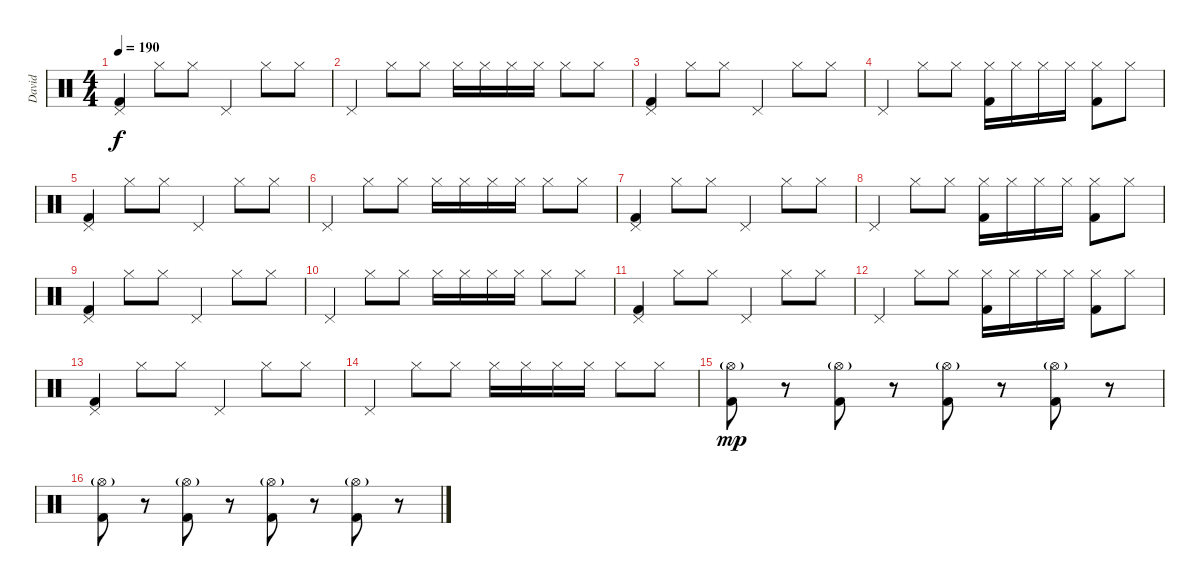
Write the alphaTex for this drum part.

\track ("David" "David") {instrument percussion}
\staff {score}
\articulation defaults
\ts (4 4)
\tempo 190
\clef neutral
\ks c
("Pedal Hi-Hat (hit)" "Kick (hit) 2").4{dy f} "Hi-Hat (closed)".8 "Hi-Hat (closed)".8 "Pedal Hi-Hat (hit)".4 "Hi-Hat (closed)".8 "Hi-Hat (closed)".8 |
"Pedal Hi-Hat (hit)".4 "Hi-Hat (closed)".8 "Hi-Hat (closed)".8 "Hi-Hat (closed)".16 "Hi-Hat (closed)".16 "Hi-Hat (closed)".16 "Hi-Hat (closed)".16 "Hi-Hat (closed)".8 "Hi-Hat (closed)".8 |
("Pedal Hi-Hat (hit)" "Kick (hit) 2").4 "Hi-Hat (closed)".8 "Hi-Hat (closed)".8 "Pedal Hi-Hat (hit)".4 "Hi-Hat (closed)".8 "Hi-Hat (closed)".8 |
"Pedal Hi-Hat (hit)".4 "Hi-Hat (closed)".8 "Hi-Hat (closed)".8 ("Hi-Hat (closed)" "Kick (hit) 2").16 "Hi-Hat (closed)".16 "Hi-Hat (closed)".16 "Hi-Hat (closed)".16 ("Hi-Hat (closed)" "Kick (hit) 2").8 "Hi-Hat (closed)".8 |
("Pedal Hi-Hat (hit)" "Kick (hit) 2").4 "Hi-Hat (closed)".8 "Hi-Hat (closed)".8 "Pedal Hi-Hat (hit)".4 "Hi-Hat (closed)".8 "Hi-Hat (closed)".8 |
"Pedal Hi-Hat (hit)".4 "Hi-Hat (closed)".8 "Hi-Hat (closed)".8 "Hi-Hat (closed)".16 "Hi-Hat (closed)".16 "Hi-Hat (closed)".16 "Hi-Hat (closed)".16 "Hi-Hat (closed)".8 "Hi-Hat (closed)".8 |
("Pedal Hi-Hat (hit)" "Kick (hit) 2").4 "Hi-Hat (closed)".8 "Hi-Hat (closed)".8 "Pedal Hi-Hat (hit)".4 "Hi-Hat (closed)".8 "Hi-Hat (closed)".8 |
"Pedal Hi-Hat (hit)".4 "Hi-Hat (closed)".8 "Hi-Hat (closed)".8 ("Hi-Hat (closed)" "Kick (hit) 2").16 "Hi-Hat (closed)".16 "Hi-Hat (closed)".16 "Hi-Hat (closed)".16 ("Hi-Hat (closed)" "Kick (hit) 2").8 "Hi-Hat (closed)".8 |
("Pedal Hi-Hat (hit)" "Kick (hit) 2").4 "Hi-Hat (closed)".8 "Hi-Hat (closed)".8 "Pedal Hi-Hat (hit)".4 "Hi-Hat (closed)".8 "Hi-Hat (closed)".8 |
"Pedal Hi-Hat (hit)".4 "Hi-Hat (closed)".8 "Hi-Hat (closed)".8 "Hi-Hat (closed)".16 "Hi-Hat (closed)".16 "Hi-Hat (closed)".16 "Hi-Hat (closed)".16 "Hi-Hat (closed)".8 "Hi-Hat (closed)".8 |
("Pedal Hi-Hat (hit)" "Kick (hit) 2").4 "Hi-Hat (closed)".8 "Hi-Hat (closed)".8 "Pedal Hi-Hat (hit)".4 "Hi-Hat (closed)".8 "Hi-Hat (closed)".8 |
"Pedal Hi-Hat (hit)".4 "Hi-Hat (closed)".8 "Hi-Hat (closed)".8 ("Hi-Hat (closed)" "Kick (hit) 2").16 "Hi-Hat (closed)".16 "Hi-Hat (closed)".16 "Hi-Hat (closed)".16 ("Hi-Hat (closed)" "Kick (hit) 2").8 "Hi-Hat (closed)".8 |
("Pedal Hi-Hat (hit)" "Kick (hit) 2").4 "Hi-Hat (closed)".8 "Hi-Hat (closed)".8 "Pedal Hi-Hat (hit)".4 "Hi-Hat (closed)".8 "Hi-Hat (closed)".8 |
"Pedal Hi-Hat (hit)".4 "Hi-Hat (closed)".8 "Hi-Hat (closed)".8 "Hi-Hat (closed)".16 "Hi-Hat (closed)".16 "Hi-Hat (closed)".16 "Hi-Hat (closed)".16 "Hi-Hat (closed)".8 "Hi-Hat (closed)".8 |
("Hi-Hat (open)"{g} "Kick (hit) 2").8{dy mp} r.8 ("Hi-Hat (open)"{g} "Kick (hit) 2").8 r.8 ("Hi-Hat (open)"{g} "Kick (hit) 2").8 r.8 ("Hi-Hat (open)"{g} "Kick (hit) 2").8 r.8 |
("Hi-Hat (open)"{g} "Kick (hit) 2").8 r.8 ("Hi-Hat (open)"{g} "Kick (hit) 2").8 r.8 ("Hi-Hat (open)"{g} "Kick (hit) 2").8 r.8 ("Hi-Hat (open)"{g} "Kick (hit) 2").8 r.8
